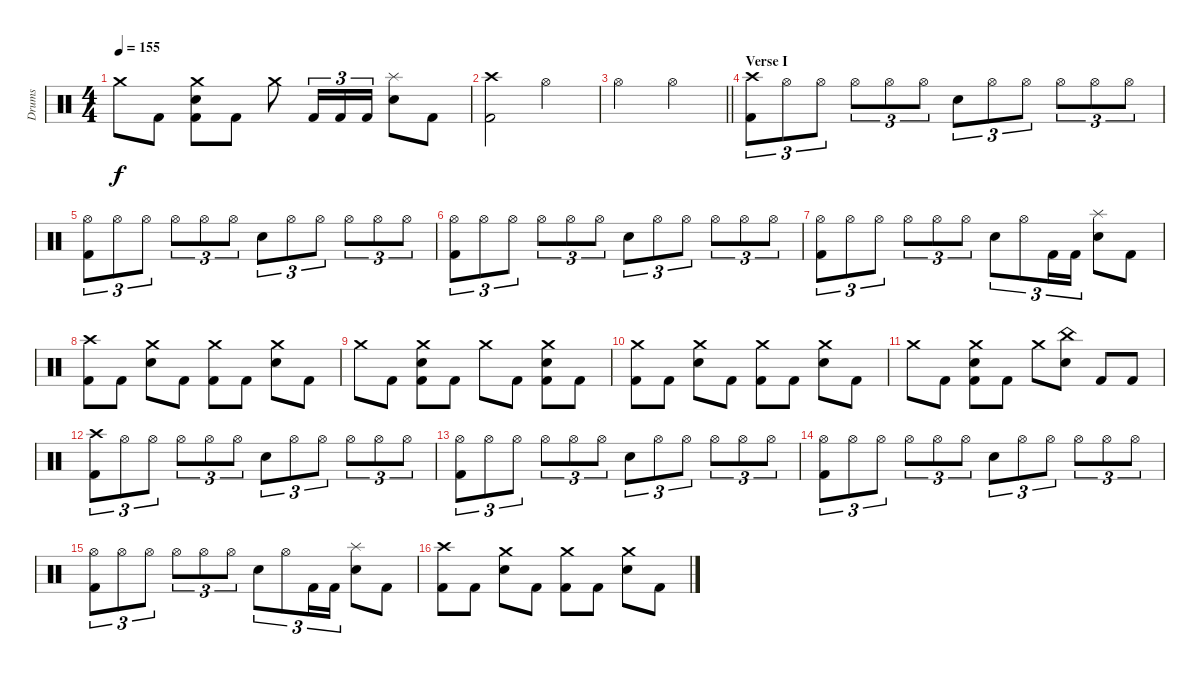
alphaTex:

\track ("Drums" "Drums") {instrument percussion}
\staff {score}
\articulation defaults
\ts (4 4)
\tempo 155
\clef neutral
\ks c "Crash medium (hit)".8{dy f} "Kick (hit) 2".8
("Crash medium (hit)" "Electric Snare (hit)" "Kick (hit) 2").8 "Kick (hit) 2".8 "Crash medium (hit)".8 "Kick (hit) 2".16{tu (3 2)} "Kick (hit) 2".16{tu (3 2)} "Kick (hit) 2".16{tu (3 2)} ("Splash (hit)" "Electric Snare (hit)").8 "Kick (hit) 2".8 |
("Crash high (hit)" "Kick (hit) 2").2 "Hi-Hat (open)".2 |
\barLineRight lightlight "Hi-Hat (open)".2 "Hi-Hat (open)".2
|
\section ("" "Verse I")
("Crash high (hit)" "Kick (hit) 2").8{tu (3 2)} "Hi-Hat (open)".8{tu (3 2)} "Hi-Hat (open)".8{tu (3 2)} "Hi-Hat (open)".8{tu (3 2)} "Hi-Hat (open)".8{tu (3 2)} "Hi-Hat (open)".8{tu (3 2)} "Electric Snare (hit)".8{tu (3 2)} "Hi-Hat (open)".8{tu (3 2)} "Hi-Hat (open)".8{tu (3 2)} "Hi-Hat (open)".8{tu (3 2)} "Hi-Hat (open)".8{tu (3 2)} "Hi-Hat (open)".8{tu (3 2)} |
("Hi-Hat (open)" "Kick (hit) 2").8{tu (3 2)} "Hi-Hat (open)".8{tu (3 2)} "Hi-Hat (open)".8{tu (3 2)} "Hi-Hat (open)".8{tu (3 2)} "Hi-Hat (open)".8{tu (3 2)} "Hi-Hat (open)".8{tu (3 2)} "Electric Snare (hit)".8{tu (3 2)} "Hi-Hat (open)".8{tu (3 2)} "Hi-Hat (open)".8{tu (3 2)} "Hi-Hat (open)".8{tu (3 2)} "Hi-Hat (open)".8{tu (3 2)} "Hi-Hat (open)".8{tu (3 2)} |
("Hi-Hat (open)" "Kick (hit) 2").8{tu (3 2)} "Hi-Hat (open)".8{tu (3 2)} "Hi-Hat (open)".8{tu (3 2)} "Hi-Hat (open)".8{tu (3 2)} "Hi-Hat (open)".8{tu (3 2)} "Hi-Hat (open)".8{tu (3 2)} "Electric Snare (hit)".8{tu (3 2)} "Hi-Hat (open)".8{tu (3 2)} "Hi-Hat (open)".8{tu (3 2)} "Hi-Hat (open)".8{tu (3 2)} "Hi-Hat (open)".8{tu (3 2)} "Hi-Hat (open)".8{tu (3 2)} |
("Hi-Hat (open)" "Kick (hit) 2").8{tu (3 2)} "Hi-Hat (open)".8{tu (3 2)} "Hi-Hat (open)".8{tu (3 2)} "Hi-Hat (open)".8{tu (3 2)} "Hi-Hat (open)".8{tu (3 2)} "Hi-Hat (open)".8{tu (3 2)} "Electric Snare (hit)".8{tu (3 2)} "Hi-Hat (open)".8{tu (3 2)} "Kick (hit) 2".16{tu (3 2)} "Kick (hit) 2".16{tu (3 2)} ("Splash (hit)" "Electric Snare (hit)").8 "Kick (hit) 2".8 |
("Crash high (hit)" "Kick (hit) 2").8 "Kick (hit) 2".8 ("Crash medium (hit)" "Electric Snare (hit)").8 "Kick (hit) 2".8 ("Crash medium (hit)" "Kick (hit) 2").8 "Kick (hit) 2".8 ("Crash medium (hit)" "Electric Snare (hit)").8 "Kick (hit) 2".8 |
"Crash medium (hit)".8 "Kick (hit) 2".8 ("Crash medium (hit)" "Electric Snare (hit)" "Kick (hit) 2").8 "Kick (hit) 2".8 "Crash medium (hit)".8 "Kick (hit) 2".8 ("Crash medium (hit)" "Electric Snare (hit)" "Kick (hit) 2").8 "Kick (hit) 2".8 |
("Crash medium (hit)" "Kick (hit) 2").8 "Kick (hit) 2".8 ("Crash medium (hit)" "Electric Snare (hit)").8 "Kick (hit) 2".8 ("Crash medium (hit)" "Kick (hit) 2").8 "Kick (hit) 2".8 ("Crash medium (hit)" "Electric Snare (hit)").8 "Kick (hit) 2".8 |
"Crash medium (hit)".8 "Kick (hit) 2".8 ("Crash medium (hit)" "Electric Snare (hit)" "Kick (hit) 2").8 "Kick (hit) 2".8 "Crash medium (hit)".8 ("China (hit)" "Electric Snare (hit)").8 "Kick (hit) 2".8 "Kick (hit) 2".8 |
("Crash high (hit)" "Kick (hit) 2").8{tu (3 2)} "Hi-Hat (open)".8{tu (3 2)} "Hi-Hat (open)".8{tu (3 2)} "Hi-Hat (open)".8{tu (3 2)} "Hi-Hat (open)".8{tu (3 2)} "Hi-Hat (open)".8{tu (3 2)} "Electric Snare (hit)".8{tu (3 2)} "Hi-Hat (open)".8{tu (3 2)} "Hi-Hat (open)".8{tu (3 2)} "Hi-Hat (open)".8{tu (3 2)} "Hi-Hat (open)".8{tu (3 2)} "Hi-Hat (open)".8{tu (3 2)} |
("Hi-Hat (open)" "Kick (hit) 2").8{tu (3 2)} "Hi-Hat (open)".8{tu (3 2)} "Hi-Hat (open)".8{tu (3 2)} "Hi-Hat (open)".8{tu (3 2)} "Hi-Hat (open)".8{tu (3 2)} "Hi-Hat (open)".8{tu (3 2)} "Electric Snare (hit)".8{tu (3 2)} "Hi-Hat (open)".8{tu (3 2)} "Hi-Hat (open)".8{tu (3 2)} "Hi-Hat (open)".8{tu (3 2)} "Hi-Hat (open)".8{tu (3 2)} "Hi-Hat (open)".8{tu (3 2)} |
("Hi-Hat (open)" "Kick (hit) 2").8{tu (3 2)} "Hi-Hat (open)".8{tu (3 2)} "Hi-Hat (open)".8{tu (3 2)} "Hi-Hat (open)".8{tu (3 2)} "Hi-Hat (open)".8{tu (3 2)} "Hi-Hat (open)".8{tu (3 2)} "Electric Snare (hit)".8{tu (3 2)} "Hi-Hat (open)".8{tu (3 2)} "Hi-Hat (open)".8{tu (3 2)} "Hi-Hat (open)".8{tu (3 2)} "Hi-Hat (open)".8{tu (3 2)} "Hi-Hat (open)".8{tu (3 2)} |
("Hi-Hat (open)" "Kick (hit) 2").8{tu (3 2)} "Hi-Hat (open)".8{tu (3 2)} "Hi-Hat (open)".8{tu (3 2)} "Hi-Hat (open)".8{tu (3 2)} "Hi-Hat (open)".8{tu (3 2)} "Hi-Hat (open)".8{tu (3 2)} "Electric Snare (hit)".8{tu (3 2)} "Hi-Hat (open)".8{tu (3 2)} "Kick (hit) 2".16{tu (3 2)} "Kick (hit) 2".16{tu (3 2)} ("Splash (hit)" "Electric Snare (hit)").8 "Kick (hit) 2".8 |
("Crash high (hit)" "Kick (hit) 2").8 "Kick (hit) 2".8 ("Crash medium (hit)" "Electric Snare (hit)").8 "Kick (hit) 2".8 ("Crash medium (hit)" "Kick (hit) 2").8 "Kick (hit) 2".8 ("Crash medium (hit)" "Electric Snare (hit)").8 "Kick (hit) 2".8
